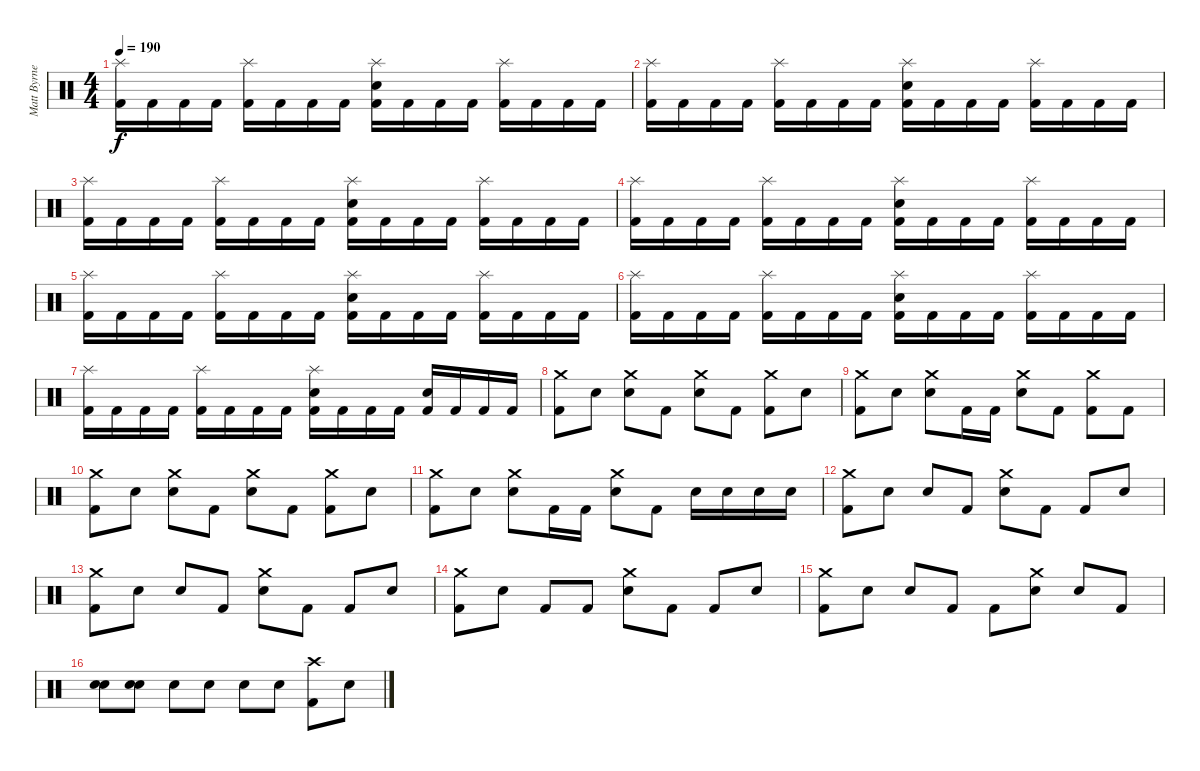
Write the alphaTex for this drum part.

\track ("Matt Byrne (Drums)" "Matt Byrne") {instrument percussion}
\staff {score}
\articulation defaults
\ts (4 4)
\tempo 190
\clef neutral
\ks c
("Splash (hit)" "Kick (hit) 2").16{dy f} "Kick (hit) 2".16 "Kick (hit) 2".16 "Kick (hit) 2".16 ("Splash (hit)" "Kick (hit) 2").16 "Kick (hit) 2".16 "Kick (hit) 2".16 "Kick (hit) 2".16 ("Splash (hit)" "Snare (hit) 2" "Kick (hit) 2").16 "Kick (hit) 2".16 "Kick (hit) 2".16 "Kick (hit) 2".16 ("Splash (hit)" "Kick (hit) 2").16 "Kick (hit) 2".16 "Kick (hit) 2".16 "Kick (hit) 2".16 |
("Splash (hit)" "Kick (hit) 2").16 "Kick (hit) 2".16 "Kick (hit) 2".16 "Kick (hit) 2".16 ("Splash (hit)" "Kick (hit) 2").16 "Kick (hit) 2".16 "Kick (hit) 2".16 "Kick (hit) 2".16 ("Splash (hit)" "Snare (hit) 2" "Kick (hit) 2").16 "Kick (hit) 2".16 "Kick (hit) 2".16 "Kick (hit) 2".16 ("Splash (hit)" "Kick (hit) 2").16 "Kick (hit) 2".16 "Kick (hit) 2".16 "Kick (hit) 2".16 |
("Splash (hit)" "Kick (hit) 2").16 "Kick (hit) 2".16 "Kick (hit) 2".16 "Kick (hit) 2".16 ("Splash (hit)" "Kick (hit) 2").16 "Kick (hit) 2".16 "Kick (hit) 2".16 "Kick (hit) 2".16 ("Splash (hit)" "Snare (hit) 2" "Kick (hit) 2").16 "Kick (hit) 2".16 "Kick (hit) 2".16 "Kick (hit) 2".16 ("Splash (hit)" "Kick (hit) 2").16 "Kick (hit) 2".16 "Kick (hit) 2".16 "Kick (hit) 2".16 |
("Splash (hit)" "Kick (hit) 2").16 "Kick (hit) 2".16 "Kick (hit) 2".16 "Kick (hit) 2".16 ("Splash (hit)" "Kick (hit) 2").16 "Kick (hit) 2".16 "Kick (hit) 2".16 "Kick (hit) 2".16 ("Splash (hit)" "Snare (hit) 2" "Kick (hit) 2").16 "Kick (hit) 2".16 "Kick (hit) 2".16 "Kick (hit) 2".16 ("Splash (hit)" "Kick (hit) 2").16 "Kick (hit) 2".16 "Kick (hit) 2".16 "Kick (hit) 2".16 |
("Splash (hit)" "Kick (hit) 2").16 "Kick (hit) 2".16 "Kick (hit) 2".16 "Kick (hit) 2".16 ("Splash (hit)" "Kick (hit) 2").16 "Kick (hit) 2".16 "Kick (hit) 2".16 "Kick (hit) 2".16 ("Splash (hit)" "Snare (hit) 2" "Kick (hit) 2").16 "Kick (hit) 2".16 "Kick (hit) 2".16 "Kick (hit) 2".16 ("Splash (hit)" "Kick (hit) 2").16 "Kick (hit) 2".16 "Kick (hit) 2".16 "Kick (hit) 2".16 |
("Splash (hit)" "Kick (hit) 2").16 "Kick (hit) 2".16 "Kick (hit) 2".16 "Kick (hit) 2".16 ("Splash (hit)" "Kick (hit) 2").16 "Kick (hit) 2".16 "Kick (hit) 2".16 "Kick (hit) 2".16 ("Splash (hit)" "Snare (hit) 2" "Kick (hit) 2").16 "Kick (hit) 2".16 "Kick (hit) 2".16 "Kick (hit) 2".16 ("Splash (hit)" "Kick (hit) 2").16 "Kick (hit) 2".16 "Kick (hit) 2".16 "Kick (hit) 2".16 |
("Splash (hit)" "Kick (hit) 2").16 "Kick (hit) 2".16 "Kick (hit) 2".16 "Kick (hit) 2".16 ("Splash (hit)" "Kick (hit) 2").16 "Kick (hit) 2".16 "Kick (hit) 2".16 "Kick (hit) 2".16 ("Splash (hit)" "Snare (hit) 2" "Kick (hit) 2").16 "Kick (hit) 2".16 "Kick (hit) 2".16 "Kick (hit) 2".16 ("Snare (hit) 2" "Kick (hit) 2").16 "Kick (hit) 2".16 "Kick (hit) 2".16 "Kick (hit) 2".16 |
("Crash medium (hit)" "Kick (hit) 2").8 "Snare (hit)"{x}.8 ("Crash medium (hit)" "Snare (hit)"{x}).8 "Kick (hit) 2".8 ("Crash medium (hit)" "Snare (hit) 2").8 "Kick (hit) 2".8 ("Crash medium (hit)" "Kick (hit) 2").8 "Snare (hit)"{x}.8 |
("Crash medium (hit)" "Kick (hit) 2").8 "Snare (hit)"{x}.8 ("Crash medium (hit)" "Snare (hit)"{x}).8 "Kick (hit) 2".16 "Kick (hit) 2".16 ("Crash medium (hit)" "Snare (hit) 2").8 "Kick (hit) 2".8 ("Crash medium (hit)" "Kick (hit) 2").8 "Kick (hit) 2".8 |
("Crash medium (hit)" "Kick (hit) 2").8 "Snare (hit)"{x}.8 ("Crash medium (hit)" "Snare (hit)"{x}).8 "Kick (hit) 2".8 ("Crash medium (hit)" "Snare (hit) 2").8 "Kick (hit) 2".8 ("Crash medium (hit)" "Kick (hit) 2").8 "Snare (hit)"{x}.8 |
("Crash medium (hit)" "Kick (hit) 2").8 "Snare (hit)"{x}.8 ("Crash medium (hit)" "Snare (hit)"{x}).8 "Kick (hit) 2".16 "Kick (hit) 2".16 ("Crash medium (hit)" "Snare (hit) 2").8 "Kick (hit) 2".8 "Snare (hit) 2".16 "Snare (hit) 2".16 "Snare (hit) 2".16 "Snare (hit) 2".16 |
("Crash medium (hit)" "Kick (hit) 2").8 "Snare (hit)"{x}.8 "Snare (hit)"{x}.8 "Kick (hit) 2".8 ("Crash medium (hit)" "Snare (hit) 2").8 "Kick (hit) 2".8 "Kick (hit) 2".8 "Snare (hit)"{x}.8 |
("Crash medium (hit)" "Kick (hit) 2").8 "Snare (hit)"{x}.8 "Snare (hit)"{x}.8 "Kick (hit) 2".8 ("Crash medium (hit)" "Snare (hit) 2").8 "Kick (hit) 2".8 "Kick (hit) 2".8 "Snare (hit)"{x}.8 |
("Crash medium (hit)" "Kick (hit) 2").8 "Snare (hit)"{x}.8 "Kick (hit) 2"{x}.8 "Kick (hit) 2".8 ("Crash medium (hit)" "Snare (hit) 2").8 "Kick (hit) 2".8 "Kick (hit) 2".8 "Snare (hit)"{x}.8 |
("Crash medium (hit)" "Kick (hit) 2").8 "Snare (hit)"{x}.8 "Snare (hit)"{x}.8 "Kick (hit) 2".8 "Kick (hit) 2".8 ("Crash medium (hit)" "Snare (hit) 2").8 "Snare (hit) 2".8 "Kick (hit) 2".8 |
("Snare (hit) 2" "Snare (hit)"{x}).8 ("Snare (hit) 2" "Snare (hit)"{x}).8 "Snare (hit)"{x}.8 "Snare (hit)"{x}.8 "Snare (hit)"{x}.8 "Snare (hit)"{x}.8 ("Crash high (hit)" "Kick (hit) 2").8 "Snare (hit)"{x}.8
